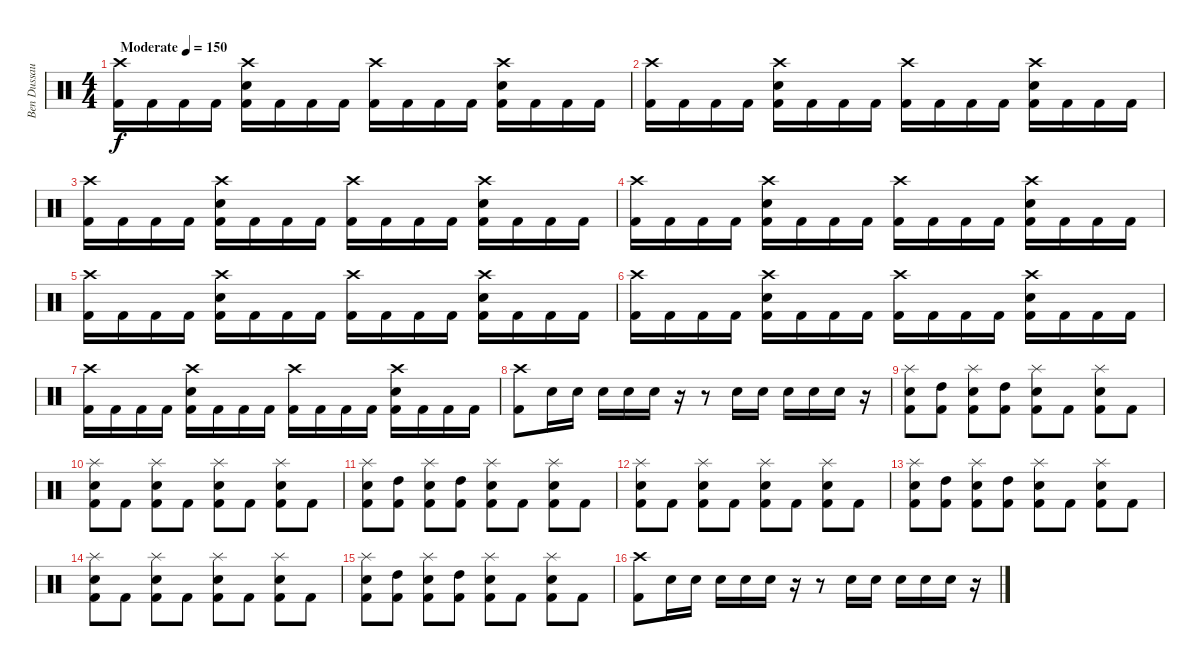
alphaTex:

\track ("Ben Dussault" "Ben Dussau") {instrument percussion}
\staff {score}
\articulation defaults
\ts (4 4)
\tempo (150 "Moderate")
\clef neutral
\ks c
("Crash high (hit)" "Kick (hit) 2").16{dy f} "Kick (hit) 2".16 "Kick (hit) 2".16 "Kick (hit) 2".16 ("Crash high (hit)" "Snare (hit) 2" "Kick (hit) 2").16 "Kick (hit) 2".16 "Kick (hit) 2".16 "Kick (hit) 2".16 ("Crash high (hit)" "Kick (hit) 2").16 "Kick (hit) 2".16 "Kick (hit) 2".16 "Kick (hit) 2".16 ("Crash high (hit)" "Snare (hit) 2" "Kick (hit) 2").16 "Kick (hit) 2".16 "Kick (hit) 2".16 "Kick (hit) 2".16 |
("Crash high (hit)" "Kick (hit) 2").16 "Kick (hit) 2".16 "Kick (hit) 2".16 "Kick (hit) 2".16 ("Crash high (hit)" "Snare (hit) 2" "Kick (hit) 2").16 "Kick (hit) 2".16 "Kick (hit) 2".16 "Kick (hit) 2".16 ("Crash high (hit)" "Kick (hit) 2").16 "Kick (hit) 2".16 "Kick (hit) 2".16 "Kick (hit) 2".16 ("Crash high (hit)" "Snare (hit) 2" "Kick (hit) 2").16 "Kick (hit) 2".16 "Kick (hit) 2".16 "Kick (hit) 2".16 |
("Crash high (hit)" "Kick (hit) 2").16 "Kick (hit) 2".16 "Kick (hit) 2".16 "Kick (hit) 2".16 ("Crash high (hit)" "Snare (hit) 2" "Kick (hit) 2").16 "Kick (hit) 2".16 "Kick (hit) 2".16 "Kick (hit) 2".16 ("Crash high (hit)" "Kick (hit) 2").16 "Kick (hit) 2".16 "Kick (hit) 2".16 "Kick (hit) 2".16 ("Crash high (hit)" "Snare (hit) 2" "Kick (hit) 2").16 "Kick (hit) 2".16 "Kick (hit) 2".16 "Kick (hit) 2".16 |
("Crash high (hit)" "Kick (hit) 2").16 "Kick (hit) 2".16 "Kick (hit) 2".16 "Kick (hit) 2".16 ("Crash high (hit)" "Snare (hit) 2" "Kick (hit) 2").16 "Kick (hit) 2".16 "Kick (hit) 2".16 "Kick (hit) 2".16 ("Crash high (hit)" "Kick (hit) 2").16 "Kick (hit) 2".16 "Kick (hit) 2".16 "Kick (hit) 2".16 ("Crash high (hit)" "Snare (hit) 2" "Kick (hit) 2").16 "Kick (hit) 2".16 "Kick (hit) 2".16 "Kick (hit) 2".16 |
("Crash high (hit)" "Kick (hit) 2").16 "Kick (hit) 2".16 "Kick (hit) 2".16 "Kick (hit) 2".16 ("Crash high (hit)" "Snare (hit) 2" "Kick (hit) 2").16 "Kick (hit) 2".16 "Kick (hit) 2".16 "Kick (hit) 2".16 ("Crash high (hit)" "Kick (hit) 2").16 "Kick (hit) 2".16 "Kick (hit) 2".16 "Kick (hit) 2".16 ("Crash high (hit)" "Snare (hit) 2" "Kick (hit) 2").16 "Kick (hit) 2".16 "Kick (hit) 2".16 "Kick (hit) 2".16 |
("Crash high (hit)" "Kick (hit) 2").16 "Kick (hit) 2".16 "Kick (hit) 2".16 "Kick (hit) 2".16 ("Crash high (hit)" "Snare (hit) 2" "Kick (hit) 2").16 "Kick (hit) 2".16 "Kick (hit) 2".16 "Kick (hit) 2".16 ("Crash high (hit)" "Kick (hit) 2").16 "Kick (hit) 2".16 "Kick (hit) 2".16 "Kick (hit) 2".16 ("Crash high (hit)" "Snare (hit) 2" "Kick (hit) 2").16 "Kick (hit) 2".16 "Kick (hit) 2".16 "Kick (hit) 2".16 |
("Crash high (hit)" "Kick (hit) 2").16 "Kick (hit) 2".16 "Kick (hit) 2".16 "Kick (hit) 2".16 ("Crash high (hit)" "Snare (hit) 2" "Kick (hit) 2").16 "Kick (hit) 2".16 "Kick (hit) 2".16 "Kick (hit) 2".16 ("Crash high (hit)" "Kick (hit) 2").16 "Kick (hit) 2".16 "Kick (hit) 2".16 "Kick (hit) 2".16 ("Crash high (hit)" "Snare (hit) 2" "Kick (hit) 2").16 "Kick (hit) 2".16 "Kick (hit) 2".16 "Kick (hit) 2".16 |
("Crash high (hit)" "Kick (hit) 2").8 "Snare (hit) 2".16 "Snare (hit) 2".16 "Snare (hit) 2".16 "Snare (hit) 2".16 "Snare (hit) 2".16 r.16 r.8 "Snare (hit) 2".16 "Snare (hit) 2".16 "Snare (hit) 2".16 "Snare (hit) 2".16 "Snare (hit) 2".16 r.16 |
("Splash (hit)" "Snare (hit) 2" "Kick (hit) 2").8 ("High Tom (hit)" "Kick (hit) 2").8 ("Splash (hit)" "Snare (hit) 2" "Kick (hit) 2").8 ("High Tom (hit)" "Kick (hit) 2").8 ("Splash (hit)" "Snare (hit) 2" "Kick (hit) 2").8 "Kick (hit) 2".8 ("Splash (hit)" "Snare (hit) 2" "Kick (hit) 2").8 "Kick (hit) 2".8 |
("Splash (hit)" "Snare (hit) 2" "Kick (hit) 2").8 "Kick (hit) 2".8 ("Splash (hit)" "Snare (hit) 2" "Kick (hit) 2").8 "Kick (hit) 2".8 ("Splash (hit)" "Snare (hit) 2" "Kick (hit) 2").8 "Kick (hit) 2".8 ("Splash (hit)" "Snare (hit) 2" "Kick (hit) 2").8 "Kick (hit) 2".8 |
("Splash (hit)" "Snare (hit) 2" "Kick (hit) 2").8 ("High Tom (hit)" "Kick (hit) 2").8 ("Splash (hit)" "Snare (hit) 2" "Kick (hit) 2").8 ("High Tom (hit)" "Kick (hit) 2").8 ("Splash (hit)" "Snare (hit) 2" "Kick (hit) 2").8 "Kick (hit) 2".8 ("Splash (hit)" "Snare (hit) 2" "Kick (hit) 2").8 "Kick (hit) 2".8 |
("Splash (hit)" "Snare (hit) 2" "Kick (hit) 2").8 "Kick (hit) 2".8 ("Splash (hit)" "Snare (hit) 2" "Kick (hit) 2").8 "Kick (hit) 2".8 ("Splash (hit)" "Snare (hit) 2" "Kick (hit) 2").8 "Kick (hit) 2".8 ("Splash (hit)" "Snare (hit) 2" "Kick (hit) 2").8 "Kick (hit) 2".8 |
("Splash (hit)" "Snare (hit) 2" "Kick (hit) 2").8 ("High Tom (hit)" "Kick (hit) 2").8 ("Splash (hit)" "Snare (hit) 2" "Kick (hit) 2").8 ("High Tom (hit)" "Kick (hit) 2").8 ("Splash (hit)" "Snare (hit) 2" "Kick (hit) 2").8 "Kick (hit) 2".8 ("Splash (hit)" "Snare (hit) 2" "Kick (hit) 2").8 "Kick (hit) 2".8 |
("Splash (hit)" "Snare (hit) 2" "Kick (hit) 2").8 "Kick (hit) 2".8 ("Splash (hit)" "Snare (hit) 2" "Kick (hit) 2").8 "Kick (hit) 2".8 ("Splash (hit)" "Snare (hit) 2" "Kick (hit) 2").8 "Kick (hit) 2".8 ("Splash (hit)" "Snare (hit) 2" "Kick (hit) 2").8 "Kick (hit) 2".8 |
("Splash (hit)" "Snare (hit) 2" "Kick (hit) 2").8 ("High Tom (hit)" "Kick (hit) 2").8 ("Splash (hit)" "Snare (hit) 2" "Kick (hit) 2").8 ("High Tom (hit)" "Kick (hit) 2").8 ("Splash (hit)" "Snare (hit) 2" "Kick (hit) 2").8 "Kick (hit) 2".8 ("Splash (hit)" "Snare (hit) 2" "Kick (hit) 2").8 "Kick (hit) 2".8 |
("Crash high (hit)" "Kick (hit) 2").8 "Snare (hit) 2".16 "Snare (hit) 2".16 "Snare (hit) 2".16 "Snare (hit) 2".16 "Snare (hit) 2".16 r.16 r.8 "Snare (hit) 2".16 "Snare (hit) 2".16 "Snare (hit) 2".16 "Snare (hit) 2".16 "Snare (hit) 2".16 r.16
